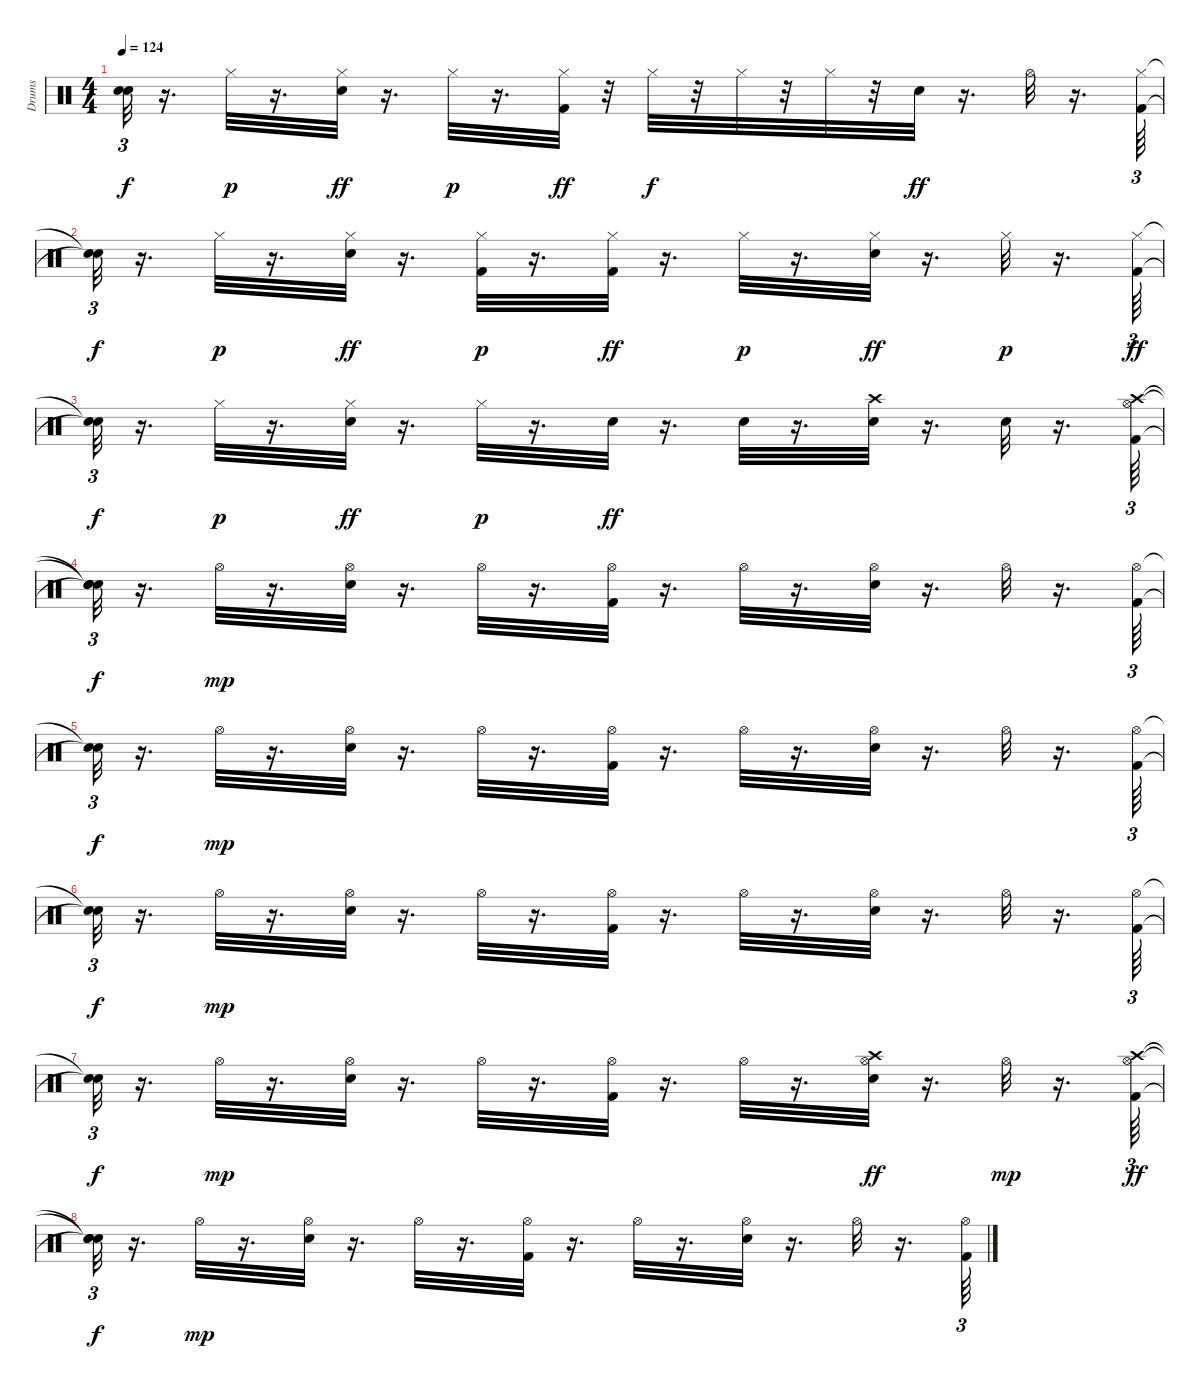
\track ("Drums" "Drums") {instrument percussion}
\staff {score}
\articulation defaults
\ts (4 4)
\tempo 124
\clef neutral
\ks c
("Snare (hit)"{t} "Snare (hit)"{t}).32{tu (3 2) dy f} r.16{d} "Hi-Hat (closed)".32{dy p} r.16{d} ("Snare (hit) 2" "Hi-Hat (closed)").32{dy ff} r.16{d} "Hi-Hat (closed)".32{dy p} r.16{d} ("Kick (hit) 2" "Hi-Hat (closed)").32{dy ff} r.32 "Hi-Hat (closed)".32{dy f} r.32 "Hi-Hat (closed)".32 r.32 "Hi-Hat (closed)".32 r.32 "Snare (hit) 2".32{dy ff} r.16{d} "Hi-Hat (open)".32 r.16{d} ("Kick (hit) 2" "Hi-Hat (closed)").64{tu (3 2)} |
("Snare (hit)"{t} "Snare (hit)"{t}).32{tu (3 2) dy f} r.16{d} "Hi-Hat (closed)".32{dy p} r.16{d} ("Snare (hit) 2" "Hi-Hat (closed)").32{dy ff} r.16{d} ("Kick (hit) 2" "Hi-Hat (closed)").32{dy p} r.16{d} ("Kick (hit) 2" "Hi-Hat (closed)").32{dy ff} r.16{d} "Hi-Hat (closed)".32{dy p} r.16{d} ("Snare (hit) 2" "Hi-Hat (closed)").32{dy ff} r.16{d} "Hi-Hat (closed)".32{dy p} r.16{d} ("Kick (hit) 2" "Hi-Hat (closed)").64{tu (3 2) dy ff} |
("Snare (hit)"{t} "Snare (hit)"{t}).32{tu (3 2) dy f} r.16{d} "Hi-Hat (closed)".32{dy p} r.16{d} ("Snare (hit) 2" "Hi-Hat (closed)").32{dy ff} r.16{d} "Hi-Hat (closed)".32{dy p} r.16{d} "Snare (hit) 2".32{dy ff} r.16{d} "Snare (hit) 2".32 r.16{d} ("Snare (hit) 2" "Crash high (hit)").32 r.16{d} "Snare (hit) 2".32 r.16{d} ("Kick (hit) 2" "Hi-Hat (open)" "Crash high (hit)").64{tu (3 2)} |
("Snare (hit)"{t} "Snare (hit)"{t} "Snare (hit)"{t}).32{tu (3 2) dy f} r.16{d} "Hi-Hat (open)".32{dy mp} r.16{d} ("Snare (hit) 2" "Hi-Hat (open)").32 r.16{d} "Hi-Hat (open)".32 r.16{d} ("Kick (hit) 2" "Hi-Hat (open)").32 r.16{d} "Hi-Hat (open)".32 r.16{d} ("Snare (hit) 2" "Hi-Hat (open)").32 r.16{d} "Hi-Hat (open)".32 r.16{d} ("Kick (hit) 2" "Hi-Hat (open)").64{tu (3 2)} |
("Snare (hit)"{t} "Snare (hit)"{t}).32{tu (3 2) dy f} r.16{d} "Hi-Hat (open)".32{dy mp} r.16{d} ("Snare (hit) 2" "Hi-Hat (open)").32 r.16{d} "Hi-Hat (open)".32 r.16{d} ("Kick (hit) 2" "Hi-Hat (open)").32 r.16{d} "Hi-Hat (open)".32 r.16{d} ("Snare (hit) 2" "Hi-Hat (open)").32 r.16{d} "Hi-Hat (open)".32 r.16{d} ("Kick (hit) 2" "Hi-Hat (open)").64{tu (3 2)} |
("Snare (hit)"{t} "Snare (hit)"{t}).32{tu (3 2) dy f} r.16{d} "Hi-Hat (open)".32{dy mp} r.16{d} ("Snare (hit) 2" "Hi-Hat (open)").32 r.16{d} "Hi-Hat (open)".32 r.16{d} ("Kick (hit) 2" "Hi-Hat (open)").32 r.16{d} "Hi-Hat (open)".32 r.16{d} ("Snare (hit) 2" "Hi-Hat (open)").32 r.16{d} "Hi-Hat (open)".32 r.16{d} ("Kick (hit) 2" "Hi-Hat (open)").64{tu (3 2)} |
("Snare (hit)"{t} "Snare (hit)"{t}).32{tu (3 2) dy f} r.16{d} "Hi-Hat (open)".32{dy mp} r.16{d} ("Snare (hit) 2" "Hi-Hat (open)").32 r.16{d} "Hi-Hat (open)".32 r.16{d} ("Kick (hit) 2" "Hi-Hat (open)").32 r.16{d} "Hi-Hat (open)".32 r.16{d} ("Snare (hit) 2" "Hi-Hat (open)" "Crash high (hit)").32{dy ff} r.16{d} "Hi-Hat (open)".32{dy mp} r.16{d} ("Kick (hit) 2" "Hi-Hat (open)" "Crash high (hit)").64{tu (3 2) dy ff} |
("Snare (hit)"{t} "Snare (hit)"{t} "Snare (hit)"{t}).32{tu (3 2) dy f} r.16{d} "Hi-Hat (open)".32{dy mp} r.16{d} ("Snare (hit) 2" "Hi-Hat (open)").32 r.16{d} "Hi-Hat (open)".32 r.16{d} ("Kick (hit) 2" "Hi-Hat (open)").32 r.16{d} "Hi-Hat (open)".32 r.16{d} ("Snare (hit) 2" "Hi-Hat (open)").32 r.16{d} "Hi-Hat (open)".32 r.16{d} ("Kick (hit) 2" "Hi-Hat (open)").64{tu (3 2)}
